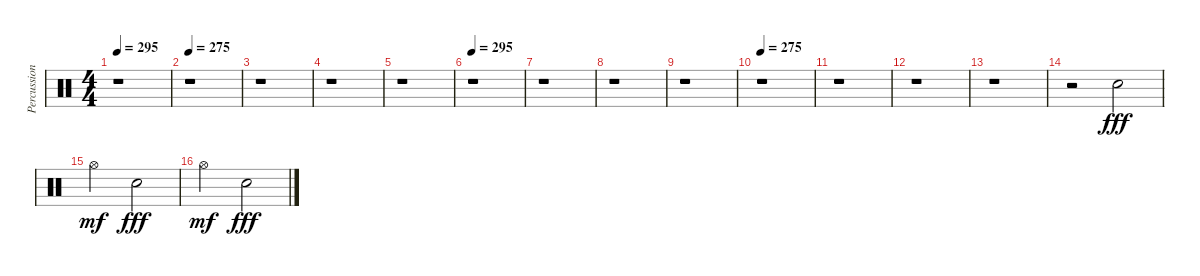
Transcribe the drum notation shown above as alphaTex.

\track ("Percussion" "Percussion") {instrument percussion}
\staff {score}
\articulation defaults
\ts (4 4)
\tempo 295
\clef neutral
\ks c
r.1{dy f} |
\tempo 275
r.1 |
r.1 |
r.1 |
r.1 |
\tempo 295
r.1 |
r.1 |
r.1 |
r.1 |
\tempo 275
r.1 |
r.1 |
r.1 |
r.1 |
r.2 "Snare (hit) 2".2{dy fff} |
"Hi-Hat (open)".2{dy mf} "Snare (hit) 2".2{dy fff} |
"Hi-Hat (open)".2{dy mf} "Snare (hit) 2".2{dy fff}
